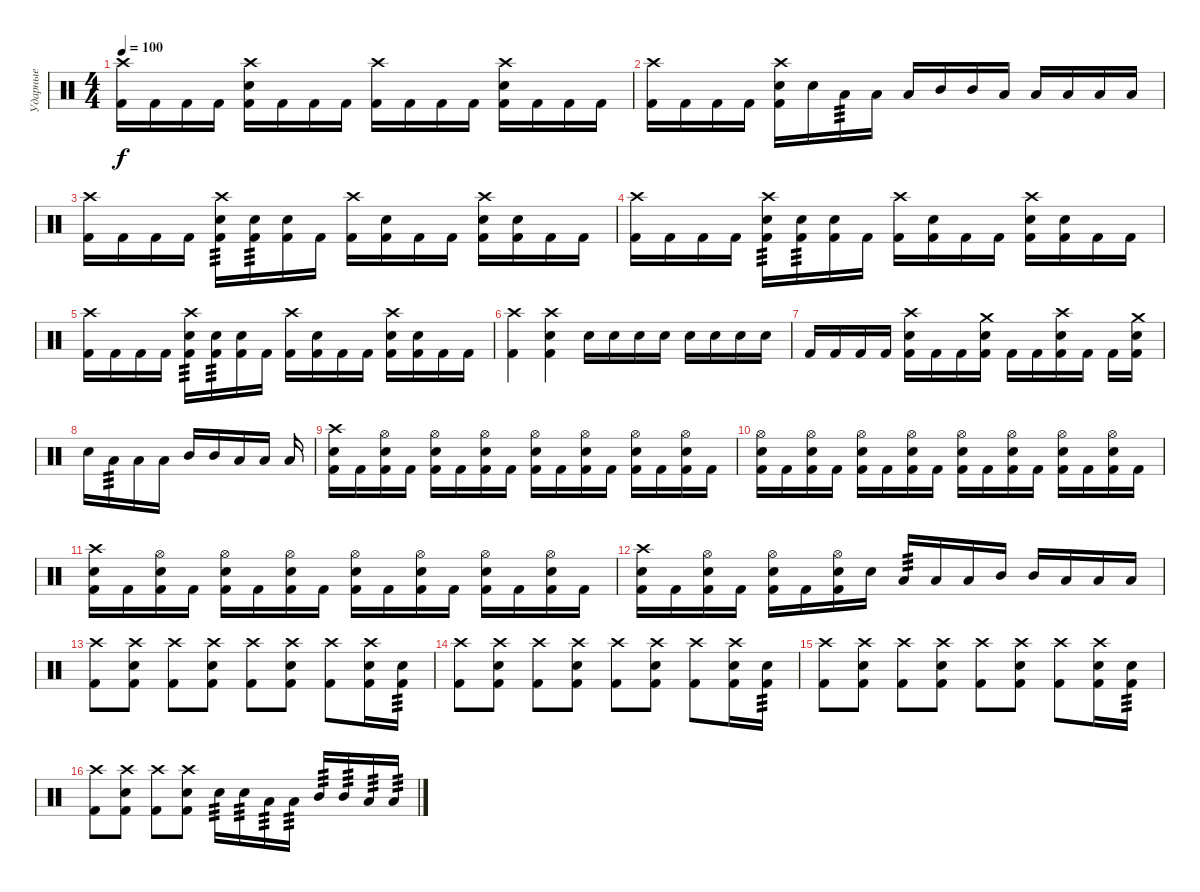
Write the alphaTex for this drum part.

\track ("Ударные" "Ударные") {instrument percussion}
\staff {score}
\articulation defaults
\ts (4 4)
\tempo 100
\clef neutral
\ks c
("Crash high (hit)" "Kick (hit) 2").16{dy f} "Kick (hit) 2".16 "Kick (hit) 2".16 "Kick (hit) 2".16 ("Crash high (hit)" "Snare (hit) 2" "Kick (hit) 2").16 "Kick (hit) 2".16 "Kick (hit) 2".16 "Kick (hit) 2".16 ("Crash high (hit)" "Kick (hit) 2").16 "Kick (hit) 2".16 "Kick (hit) 2".16 "Kick (hit) 2".16 ("Crash high (hit)" "Snare (hit) 2" "Kick (hit) 2").16 "Kick (hit) 2".16 "Kick (hit) 2".16 "Kick (hit) 2".16 |
("Crash high (hit)" "Kick (hit) 2").16 "Kick (hit) 2".16 "Kick (hit) 2".16 "Kick (hit) 2".16 ("Crash high (hit)" "Snare (hit) 2" "Kick (hit) 2").16 "Snare (hit) 2".16 "Low Tom (hit)".16{tp 3} "Low Tom (hit)".16 "Low Tom (hit)".16 "Mid Tom (hit)".16 "Mid Tom (hit)".16 "Low Floor Tom (hit)".16 "Low Floor Tom (hit)".16 "Low Floor Tom (hit)".16 "Low Floor Tom (hit)".16 "Low Floor Tom (hit)".16 |
("Crash high (hit)" "Kick (hit) 2").16 "Kick (hit) 2".16 "Kick (hit) 2".16 "Kick (hit) 2".16 ("Crash high (hit)" "Snare (hit) 2" "Kick (hit) 2").16{tp 3} ("Snare (hit) 2" "Kick (hit) 2").16{tp 3} ("Snare (hit) 2" "Kick (hit) 2").16 "Kick (hit) 2".16 ("Crash high (hit)" "Kick (hit) 2").16 ("Snare (hit) 2" "Kick (hit) 2").16 "Kick (hit) 2".16 "Kick (hit) 2".16 ("Crash high (hit)" "Snare (hit) 2" "Kick (hit) 2").16 ("Snare (hit) 2" "Kick (hit) 2").16 "Kick (hit) 2".16 "Kick (hit) 2".16 |
("Crash high (hit)" "Kick (hit) 2").16 "Kick (hit) 2".16 "Kick (hit) 2".16 "Kick (hit) 2".16 ("Crash high (hit)" "Snare (hit) 2" "Kick (hit) 2").16{tp 3} ("Snare (hit) 2" "Kick (hit) 2").16{tp 3} ("Snare (hit) 2" "Kick (hit) 2").16 "Kick (hit) 2".16 ("Crash high (hit)" "Kick (hit) 2").16 ("Snare (hit) 2" "Kick (hit) 2").16 "Kick (hit) 2".16 "Kick (hit) 2".16 ("Crash high (hit)" "Snare (hit) 2" "Kick (hit) 2").16 ("Snare (hit) 2" "Kick (hit) 2").16 "Kick (hit) 2".16 "Kick (hit) 2".16 |
("Crash high (hit)" "Kick (hit) 2").16 "Kick (hit) 2".16 "Kick (hit) 2".16 "Kick (hit) 2".16 ("Crash high (hit)" "Snare (hit) 2" "Kick (hit) 2").16{tp 3} ("Snare (hit) 2" "Kick (hit) 2").16{tp 3} ("Snare (hit) 2" "Kick (hit) 2").16 "Kick (hit) 2".16 ("Crash high (hit)" "Kick (hit) 2").16 ("Snare (hit) 2" "Kick (hit) 2").16 "Kick (hit) 2".16 "Kick (hit) 2".16 ("Crash high (hit)" "Snare (hit) 2" "Kick (hit) 2").16 ("Snare (hit) 2" "Kick (hit) 2").16 "Kick (hit) 2".16 "Kick (hit) 2".16 |
("Crash high (hit)" "Kick (hit) 2").4 ("Crash high (hit)" "Snare (hit) 2" "Kick (hit) 2").4 "Snare (hit) 2".16 "Snare (hit) 2".16 "Snare (hit) 2".16 "Snare (hit) 2".16 "Snare (hit) 2".16 "Snare (hit) 2".16 "Snare (hit) 2".16 "Snare (hit) 2".16 |
"Kick (hit) 2".16 "Kick (hit) 2".16 "Kick (hit) 2".16 "Kick (hit) 2".16 ("Crash high (hit)" "Snare (hit) 2" "Kick (hit) 2").16 "Kick (hit) 2".16 "Kick (hit) 2".16 ("Crash medium (hit)" "Snare (hit) 2" "Kick (hit) 2").16 "Kick (hit) 2".16 "Kick (hit) 2".16 ("Crash high (hit)" "Snare (hit) 2" "Kick (hit) 2").16 "Kick (hit) 2".16 "Kick (hit) 2".16 ("Crash medium (hit)" "Snare (hit) 2" "Kick (hit) 2").16 |
"Snare (hit) 2".16 "Low Tom (hit)".16{tp 3} "Low Tom (hit)".16 "Low Tom (hit)".16 "Mid Tom (hit)".16 "Mid Tom (hit)".16 "Low Floor Tom (hit)".16 "Low Floor Tom (hit)".16 "Low Floor Tom (hit)".16 |
("Crash high (hit)" "Snare (hit) 2" "Kick (hit) 2").16 "Kick (hit) 2".16 ("Hi-Hat (open)" "Snare (hit) 2" "Kick (hit) 2").16 "Kick (hit) 2".16 ("Hi-Hat (open)" "Snare (hit) 2" "Kick (hit) 2").16 "Kick (hit) 2".16 ("Hi-Hat (open)" "Snare (hit) 2" "Kick (hit) 2").16 "Kick (hit) 2".16 ("Hi-Hat (open)" "Snare (hit) 2" "Kick (hit) 2").16 "Kick (hit) 2".16 ("Hi-Hat (open)" "Snare (hit) 2" "Kick (hit) 2").16 "Kick (hit) 2".16 ("Hi-Hat (open)" "Snare (hit) 2" "Kick (hit) 2").16 "Kick (hit) 2".16 ("Hi-Hat (open)" "Snare (hit) 2" "Kick (hit) 2").16 "Kick (hit) 2".16 |
("Hi-Hat (open)" "Snare (hit) 2" "Kick (hit) 2").16 "Kick (hit) 2".16 ("Hi-Hat (open)" "Snare (hit) 2" "Kick (hit) 2").16 "Kick (hit) 2".16 ("Hi-Hat (open)" "Snare (hit) 2" "Kick (hit) 2").16 "Kick (hit) 2".16 ("Hi-Hat (open)" "Snare (hit) 2" "Kick (hit) 2").16 "Kick (hit) 2".16 ("Hi-Hat (open)" "Snare (hit) 2" "Kick (hit) 2").16 "Kick (hit) 2".16 ("Hi-Hat (open)" "Snare (hit) 2" "Kick (hit) 2").16 "Kick (hit) 2".16 ("Hi-Hat (open)" "Snare (hit) 2" "Kick (hit) 2").16 "Kick (hit) 2".16 ("Hi-Hat (open)" "Snare (hit) 2" "Kick (hit) 2").16 "Kick (hit) 2".16 |
("Crash high (hit)" "Snare (hit) 2" "Kick (hit) 2").16 "Kick (hit) 2".16 ("Hi-Hat (open)" "Snare (hit) 2" "Kick (hit) 2").16 "Kick (hit) 2".16 ("Hi-Hat (open)" "Snare (hit) 2" "Kick (hit) 2").16 "Kick (hit) 2".16 ("Hi-Hat (open)" "Snare (hit) 2" "Kick (hit) 2").16 "Kick (hit) 2".16 ("Hi-Hat (open)" "Snare (hit) 2" "Kick (hit) 2").16 "Kick (hit) 2".16 ("Hi-Hat (open)" "Snare (hit) 2" "Kick (hit) 2").16 "Kick (hit) 2".16 ("Hi-Hat (open)" "Snare (hit) 2" "Kick (hit) 2").16 "Kick (hit) 2".16 ("Hi-Hat (open)" "Snare (hit) 2" "Kick (hit) 2").16 "Kick (hit) 2".16 |
("Crash high (hit)" "Snare (hit) 2" "Kick (hit) 2").16 "Kick (hit) 2".16 ("Hi-Hat (open)" "Snare (hit) 2" "Kick (hit) 2").16 "Kick (hit) 2".16 ("Hi-Hat (open)" "Snare (hit) 2" "Kick (hit) 2").16 "Kick (hit) 2".16 ("Hi-Hat (open)" "Snare (hit) 2" "Kick (hit) 2").16 "Snare (hit) 2".16 "Low Tom (hit)".16{tp 3} "Low Tom (hit)".16 "Low Tom (hit)".16 "Mid Tom (hit)".16 "Mid Tom (hit)".16 "Low Floor Tom (hit)".16 "Low Floor Tom (hit)".16 "Low Floor Tom (hit)".16 |
("Crash high (hit)" "Kick (hit) 2").8 ("Crash high (hit)" "Snare (hit) 2" "Kick (hit) 2").8 ("Crash high (hit)" "Kick (hit) 2").8 ("Crash high (hit)" "Snare (hit) 2" "Kick (hit) 2").8 ("Crash high (hit)" "Kick (hit) 2").8 ("Crash high (hit)" "Snare (hit) 2" "Kick (hit) 2").8 ("Crash high (hit)" "Kick (hit) 2").8 ("Crash high (hit)" "Snare (hit) 2" "Kick (hit) 2").16 ("Snare (hit) 2" "Kick (hit) 2").16{tp 3} |
("Crash high (hit)" "Kick (hit) 2").8 ("Crash high (hit)" "Snare (hit) 2" "Kick (hit) 2").8 ("Crash high (hit)" "Kick (hit) 2").8 ("Crash high (hit)" "Snare (hit) 2" "Kick (hit) 2").8 ("Crash high (hit)" "Kick (hit) 2").8 ("Crash high (hit)" "Snare (hit) 2" "Kick (hit) 2").8 ("Crash high (hit)" "Kick (hit) 2").8 ("Crash high (hit)" "Snare (hit) 2" "Kick (hit) 2").16 ("Snare (hit) 2" "Kick (hit) 2").16{tp 3} |
("Crash high (hit)" "Kick (hit) 2").8 ("Crash high (hit)" "Snare (hit) 2" "Kick (hit) 2").8 ("Crash high (hit)" "Kick (hit) 2").8 ("Crash high (hit)" "Snare (hit) 2" "Kick (hit) 2").8 ("Crash high (hit)" "Kick (hit) 2").8 ("Crash high (hit)" "Snare (hit) 2" "Kick (hit) 2").8 ("Crash high (hit)" "Kick (hit) 2").8 ("Crash high (hit)" "Snare (hit) 2" "Kick (hit) 2").16 ("Snare (hit) 2" "Kick (hit) 2").16{tp 3} |
("Crash high (hit)" "Kick (hit) 2").8 ("Crash high (hit)" "Snare (hit) 2" "Kick (hit) 2").8 ("Crash high (hit)" "Kick (hit) 2").8 ("Crash high (hit)" "Snare (hit) 2" "Kick (hit) 2").8 "Snare (hit) 2".16{tp 3} "Snare (hit) 2".16{tp 3} "Low Tom (hit)".16{tp 3} "Low Tom (hit)".16{tp 3} "Mid Tom (hit)".16{tp 3} "Mid Tom (hit)".16{tp 3} "Low Floor Tom (hit)".16{tp 3} "Low Floor Tom (hit)".16{tp 3}
